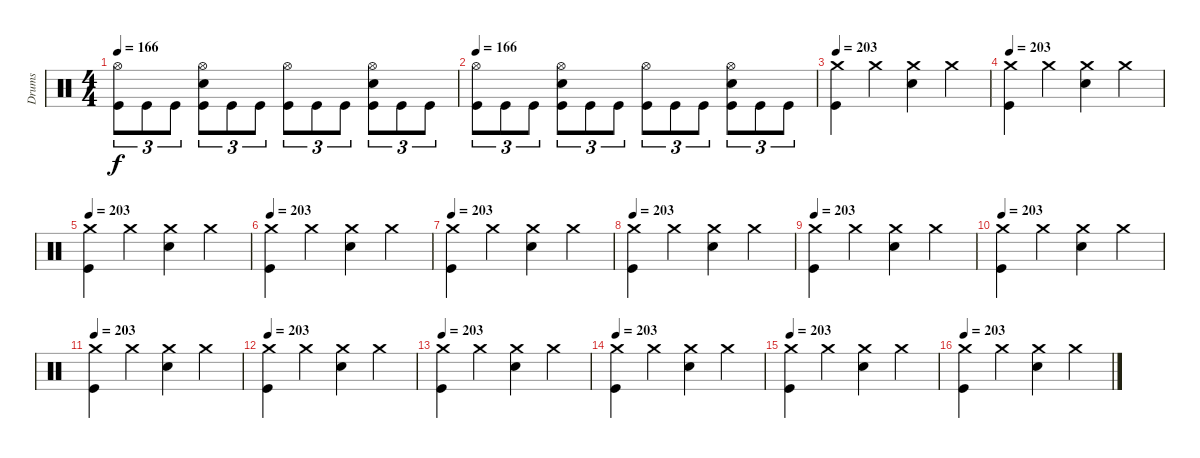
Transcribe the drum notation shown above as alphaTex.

\track ("Drums" "Drums") {instrument percussion}
\staff {score}
\articulation defaults
\ts (4 4)
\tempo 166
\clef neutral
\ks c
("Hi-Hat (open)" "Kick (hit)").8{tu (3 2) dy f} "Kick (hit)".8{tu (3 2)} "Kick (hit)".8{tu (3 2)} ("Hi-Hat (open)" "Electric Snare (hit)" "Kick (hit)").8{tu (3 2)} "Kick (hit)".8{tu (3 2)} "Kick (hit)".8{tu (3 2)} ("Hi-Hat (open)" "Kick (hit)").8{tu (3 2)} "Kick (hit)".8{tu (3 2)} "Kick (hit)".8{tu (3 2)} ("Hi-Hat (open)" "Electric Snare (hit)" "Kick (hit)").8{tu (3 2)} "Kick (hit)".8{tu (3 2)} "Kick (hit)".8{tu (3 2)} |
\tempo 166
("Hi-Hat (open)" "Kick (hit)").8{tu (3 2)} "Kick (hit)".8{tu (3 2)} "Kick (hit)".8{tu (3 2)} ("Hi-Hat (open)" "Electric Snare (hit)" "Kick (hit)").8{tu (3 2)} "Kick (hit)".8{tu (3 2)} "Kick (hit)".8{tu (3 2)} ("Hi-Hat (open)" "Kick (hit)").8{tu (3 2)} "Kick (hit)".8{tu (3 2)} "Kick (hit)".8{tu (3 2)} ("Hi-Hat (open)" "Electric Snare (hit)" "Kick (hit)").8{tu (3 2)} "Kick (hit)".8{tu (3 2)} "Kick (hit)".8{tu (3 2)} |
\tempo 203
("Crash medium (hit)" "Kick (hit)").4 "Crash medium (hit)".4 ("Electric Snare (hit)" "Crash medium (hit)").4 "Crash medium (hit)".4 |
\tempo 203
("Crash medium (hit)" "Kick (hit)").4 "Crash medium (hit)".4 ("Electric Snare (hit)" "Crash medium (hit)").4 "Crash medium (hit)".4 |
\tempo 203
("Crash medium (hit)" "Kick (hit)").4 "Crash medium (hit)".4 ("Electric Snare (hit)" "Crash medium (hit)").4 "Crash medium (hit)".4 |
\tempo 203
("Crash medium (hit)" "Kick (hit)").4 "Crash medium (hit)".4 ("Electric Snare (hit)" "Crash medium (hit)").4 "Crash medium (hit)".4 |
\tempo 203
("Crash medium (hit)" "Kick (hit)").4 "Crash medium (hit)".4 ("Electric Snare (hit)" "Crash medium (hit)").4 "Crash medium (hit)".4 |
\tempo 203
("Crash medium (hit)" "Kick (hit)").4 "Crash medium (hit)".4 ("Electric Snare (hit)" "Crash medium (hit)").4 "Crash medium (hit)".4 |
\tempo 203
("Crash medium (hit)" "Kick (hit)").4 "Crash medium (hit)".4 ("Electric Snare (hit)" "Crash medium (hit)").4 "Crash medium (hit)".4 |
\tempo 203
("Crash medium (hit)" "Kick (hit)").4 "Crash medium (hit)".4 ("Electric Snare (hit)" "Crash medium (hit)").4 "Crash medium (hit)".4 |
\tempo 203
("Crash medium (hit)" "Kick (hit)").4 "Crash medium (hit)".4 ("Electric Snare (hit)" "Crash medium (hit)").4 "Crash medium (hit)".4 |
\tempo 203
("Crash medium (hit)" "Kick (hit)").4 "Crash medium (hit)".4 ("Electric Snare (hit)" "Crash medium (hit)").4 "Crash medium (hit)".4 |
\tempo 203
("Crash medium (hit)" "Kick (hit)").4 "Crash medium (hit)".4 ("Electric Snare (hit)" "Crash medium (hit)").4 "Crash medium (hit)".4 |
\tempo 203
("Crash medium (hit)" "Kick (hit)").4 "Crash medium (hit)".4 ("Electric Snare (hit)" "Crash medium (hit)").4 "Crash medium (hit)".4 |
\tempo 203
("Crash medium (hit)" "Kick (hit)").4 "Crash medium (hit)".4 ("Electric Snare (hit)" "Crash medium (hit)").4 "Crash medium (hit)".4 |
\tempo 203
("Crash medium (hit)" "Kick (hit)").4 "Crash medium (hit)".4 ("Electric Snare (hit)" "Crash medium (hit)").4 "Crash medium (hit)".4
